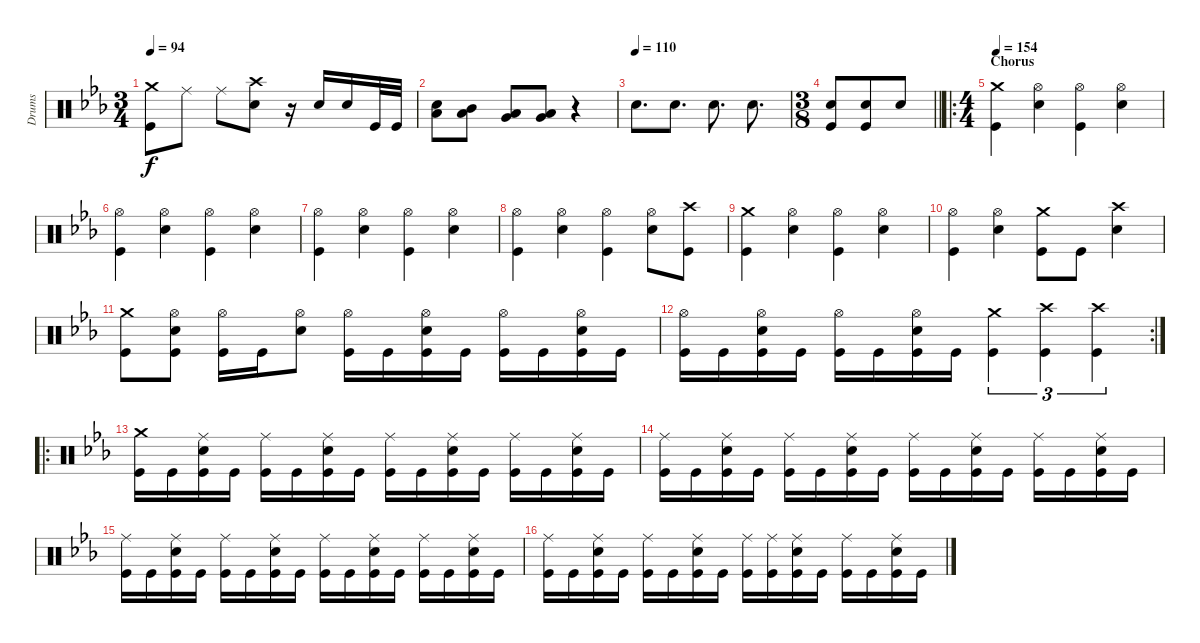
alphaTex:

\track ("Drums" "Drums") {instrument percussion}
\staff {score}
\articulation defaults
\ts (3 4)
\tempo 94
\clef neutral
\ks cminor
("Crash medium (hit)" "Kick (hit)").8{dy f} "Ride (middle)".8 "Ride (middle)".8 ("Crash high (hit)" "Snare (hit) 2").8 r.16 "Snare (hit) 2".16 "Snare (hit) 2".16 "Kick (hit)".32 "Kick (hit)".32 |
("Low Floor Tom (hit)" "Snare (hit) 2").8 ("Mid Tom (hit)" "Low Tom (hit)").8 ("Low Tom (hit)" "Very Low Tom (hit)").8 ("Very Low Tom (hit)" "Low Floor Tom (hit)").8 r.4 |
\tempo (110)
"Snare (hit) 2".8{d} "Snare (hit) 2".8{d} "Snare (hit) 2".8{d} "Snare (hit) 2".8{d} |
\ts (3 8)
\barLineRight lightlight
("Snare (hit) 2" "Kick (hit)").8 ("Snare (hit) 2" "Kick (hit)").8 "Snare (hit) 2".8 |
\ro
\ts (4 4)
\section ("" "Chorus")
\tempo 154
("Crash medium (hit)" "Kick (hit)").4 ("Hi-Hat (open)" "Snare (hit) 2").4 ("Hi-Hat (open)" "Kick (hit)").4 ("Hi-Hat (open)" "Snare (hit) 2").4 |
("Hi-Hat (open)" "Kick (hit)").4 ("Hi-Hat (open)" "Snare (hit) 2").4 ("Hi-Hat (open)" "Kick (hit)").4 ("Hi-Hat (open)" "Snare (hit) 2").4 |
("Hi-Hat (open)" "Kick (hit)").4 ("Hi-Hat (open)" "Snare (hit) 2").4 ("Hi-Hat (open)" "Kick (hit)").4 ("Hi-Hat (open)" "Snare (hit) 2").4 |
("Hi-Hat (open)" "Kick (hit)").4 ("Hi-Hat (open)" "Snare (hit) 2").4 ("Hi-Hat (open)" "Kick (hit)").4 ("Hi-Hat (open)" "Snare (hit) 2").8 ("Crash high (hit)" "Kick (hit)").8 |
("Crash medium (hit)" "Kick (hit)").4 ("Hi-Hat (open)" "Snare (hit) 2").4 ("Hi-Hat (open)" "Kick (hit)").4 ("Hi-Hat (open)" "Snare (hit) 2").4 |
("Hi-Hat (open)" "Kick (hit)").4 ("Hi-Hat (open)" "Snare (hit) 2").4 ("Crash medium (hit)" "Kick (hit)").8 "Kick (hit)".8 ("Crash high (hit)" "Snare (hit) 2").4 |
("Crash medium (hit)" "Kick (hit)").8 ("Hi-Hat (open)" "Snare (hit) 2" "Kick (hit)").8 ("Hi-Hat (open)" "Kick (hit)").16 "Kick (hit)".16 ("Hi-Hat (open)" "Snare (hit) 2").8 ("Hi-Hat (open)" "Kick (hit)").16 "Kick (hit)".16 ("Hi-Hat (open)" "Snare (hit) 2" "Kick (hit)").16 "Kick (hit)".16 ("Hi-Hat (open)" "Kick (hit)").16 "Kick (hit)".16 ("Hi-Hat (open)" "Snare (hit) 2" "Kick (hit)").16 "Kick (hit)".16 |
\rc 2
("Hi-Hat (open)" "Kick (hit)").16 "Kick (hit)".16 ("Hi-Hat (open)" "Snare (hit) 2" "Kick (hit)").16 "Kick (hit)".16 ("Hi-Hat (open)" "Kick (hit)").16 "Kick (hit)".16 ("Hi-Hat (open)" "Snare (hit) 2" "Kick (hit)").16 "Kick (hit)".16 ("Crash medium (hit)" "Kick (hit)").4{tu (3 2)} ("Crash high (hit)" "Kick (hit)").4{tu (3 2)} ("Crash high (hit)" "Kick (hit)").4{tu (3 2)} |
\ro
("Crash medium (hit)" "Kick (hit)").16 "Kick (hit)".16 ("Ride (middle)" "Snare (hit) 2" "Kick (hit)").16 "Kick (hit)".16 ("Ride (middle)" "Kick (hit)").16 "Kick (hit)".16 ("Ride (middle)" "Snare (hit) 2" "Kick (hit)").16 "Kick (hit)".16 ("Ride (middle)" "Kick (hit)").16 "Kick (hit)".16 ("Ride (middle)" "Snare (hit) 2" "Kick (hit)").16 "Kick (hit)".16 ("Ride (middle)" "Kick (hit)").16 "Kick (hit)".16 ("Ride (middle)" "Snare (hit) 2" "Kick (hit)").16 "Kick (hit)".16 |
("Ride (middle)" "Kick (hit)").16 "Kick (hit)".16 ("Ride (middle)" "Snare (hit) 2" "Kick (hit)").16 "Kick (hit)".16 ("Ride (middle)" "Kick (hit)").16 "Kick (hit)".16 ("Ride (middle)" "Snare (hit) 2" "Kick (hit)").16 "Kick (hit)".16 ("Ride (middle)" "Kick (hit)").16 "Kick (hit)".16 ("Ride (middle)" "Snare (hit) 2" "Kick (hit)").16 "Kick (hit)".16 ("Ride (middle)" "Kick (hit)").16 "Kick (hit)".16 ("Ride (middle)" "Snare (hit) 2" "Kick (hit)").16 "Kick (hit)".16 |
("Ride (middle)" "Kick (hit)").16 "Kick (hit)".16 ("Ride (middle)" "Snare (hit) 2" "Kick (hit)").16 "Kick (hit)".16 ("Ride (middle)" "Kick (hit)").16 "Kick (hit)".16 ("Ride (middle)" "Snare (hit) 2" "Kick (hit)").16 "Kick (hit)".16 ("Ride (middle)" "Kick (hit)").16 "Kick (hit)".16 ("Ride (middle)" "Snare (hit) 2" "Kick (hit)").16 "Kick (hit)".16 ("Ride (middle)" "Kick (hit)").16 "Kick (hit)".16 ("Ride (middle)" "Snare (hit) 2" "Kick (hit)").16 "Kick (hit)".16 |
("Ride (middle)" "Kick (hit)").16 "Kick (hit)".16 ("Ride (middle)" "Snare (hit) 2" "Kick (hit)").16 "Kick (hit)".16 ("Ride (middle)" "Kick (hit)").16 "Kick (hit)".16 ("Ride (middle)" "Snare (hit) 2" "Kick (hit)").16 "Kick (hit)".16 ("Ride (middle)" "Kick (hit)").16 ("Ride (middle)" "Kick (hit)").16 ("Ride (middle)" "Snare (hit) 2" "Kick (hit)").16 "Kick (hit)".16 ("Ride (middle)" "Kick (hit)").16 "Kick (hit)".16 ("Ride (middle)" "Snare (hit) 2" "Kick (hit)").16 "Kick (hit)".16
